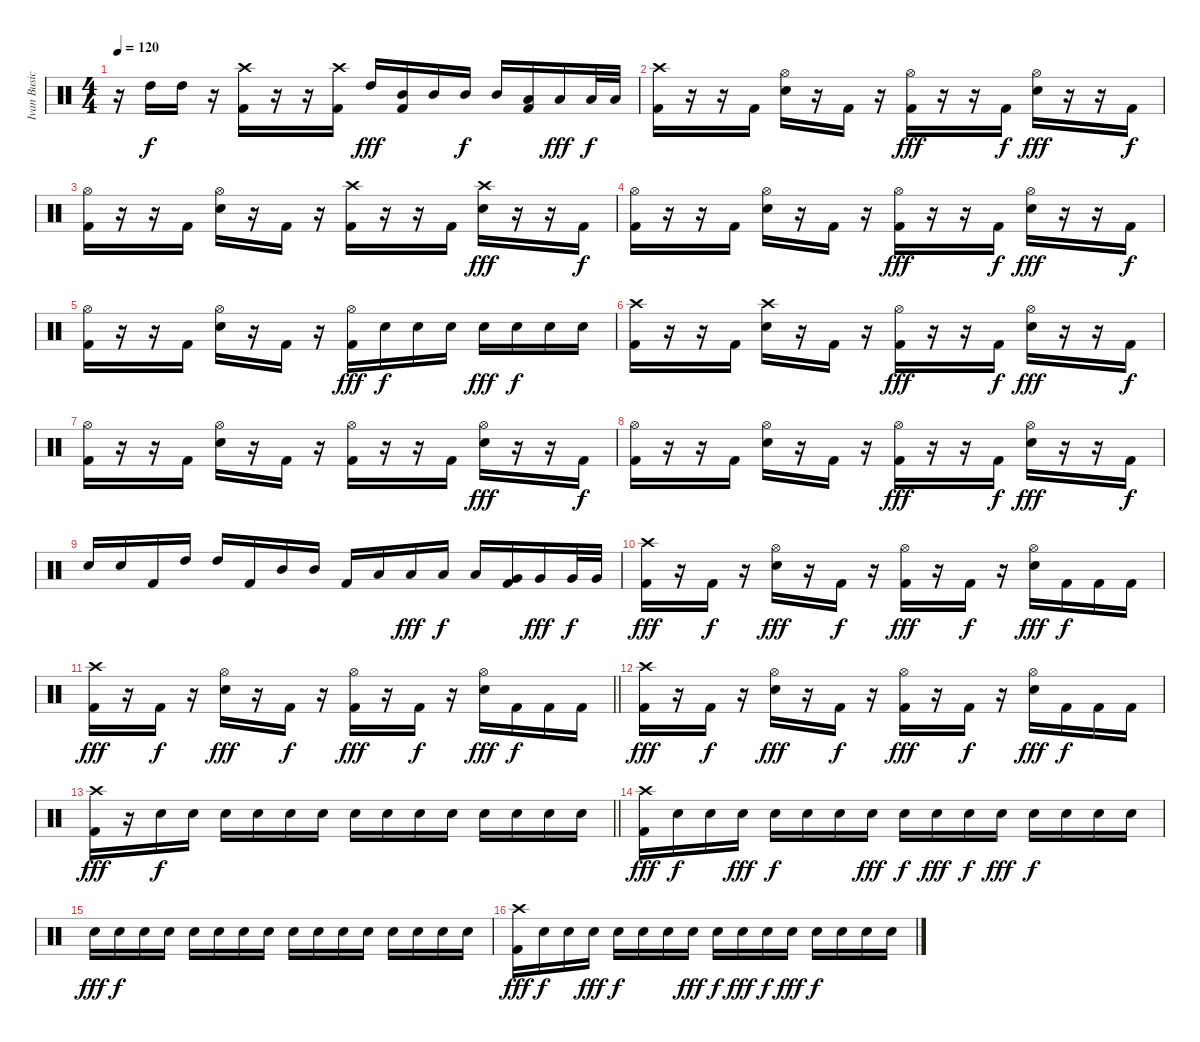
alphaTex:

\track ("Ivan Busic" "Ivan Busic") {instrument percussion}
\staff {score}
\articulation defaults
\ts (4 4)
\tempo 120
\clef neutral
\ks c
r.16{dy f} "High Tom (hit)".16 "High Tom (hit)".16 r.16 ("Crash high (hit)" "Kick (hit) 2").16 r.16 r.16 ("Crash high (hit)" "Kick (hit) 2").16 "High Tom (hit)".16{dy fff} ("Mid Tom (hit)" "Kick (hit) 2").16 "Mid Tom (hit)".16 "Mid Tom (hit)".16{dy f} "Mid Tom (hit)".16 ("Low Tom (hit)" "Kick (hit) 2").16 "Low Tom (hit)".16{dy fff} "Low Tom (hit)".32{dy f} "Low Tom (hit)".32 |
("Crash high (hit)" "Kick (hit) 2").16 r.16 r.16 "Kick (hit) 2".16 ("Hi-Hat (open)" "Electric Snare (hit)").16 r.16 "Kick (hit) 2".16 r.16 ("Hi-Hat (open)" "Kick (hit) 2").16{dy fff} r.16 r.16 "Kick (hit) 2".16{dy f} ("Hi-Hat (open)" "Electric Snare (hit)").16{dy fff} r.16 r.16 "Kick (hit) 2".16{dy f} |
("Hi-Hat (open)" "Kick (hit) 2").16 r.16 r.16 "Kick (hit) 2".16 ("Hi-Hat (open)" "Electric Snare (hit)").16 r.16 "Kick (hit) 2".16 r.16 ("Crash high (hit)" "Kick (hit) 2").16 r.16 r.16 "Kick (hit) 2".16 ("Crash high (hit)" "Electric Snare (hit)").16{dy fff} r.16 r.16 "Kick (hit) 2".16{dy f} |
("Hi-Hat (open)" "Kick (hit) 2").16 r.16 r.16 "Kick (hit) 2".16 ("Hi-Hat (open)" "Electric Snare (hit)").16 r.16 "Kick (hit) 2".16 r.16 ("Hi-Hat (open)" "Kick (hit) 2").16{dy fff} r.16 r.16 "Kick (hit) 2".16{dy f} ("Hi-Hat (open)" "Electric Snare (hit)").16{dy fff} r.16 r.16 "Kick (hit) 2".16{dy f} |
("Hi-Hat (open)" "Kick (hit) 2").16 r.16 r.16 "Kick (hit) 2".16 ("Hi-Hat (open)" "Electric Snare (hit)").16 r.16 "Kick (hit) 2".16 r.16 ("Hi-Hat (open)" "Kick (hit) 2").16{dy fff} "Electric Snare (hit)".16{dy f} "Electric Snare (hit)".16 "Electric Snare (hit)".16 "Electric Snare (hit)".16{dy fff} "Electric Snare (hit)".16{dy f} "Electric Snare (hit)".16 "Electric Snare (hit)".16 |
("Crash high (hit)" "Kick (hit) 2").16 r.16 r.16 "Kick (hit) 2".16 ("Crash high (hit)" "Electric Snare (hit)").16 r.16 "Kick (hit) 2".16 r.16 ("Hi-Hat (open)" "Kick (hit) 2").16{dy fff} r.16 r.16 "Kick (hit) 2".16{dy f} ("Hi-Hat (open)" "Electric Snare (hit)").16{dy fff} r.16 r.16 "Kick (hit) 2".16{dy f} |
("Hi-Hat (open)" "Kick (hit) 2").16 r.16 r.16 "Kick (hit) 2".16 ("Hi-Hat (open)" "Electric Snare (hit)").16 r.16 "Kick (hit) 2".16 r.16 ("Hi-Hat (open)" "Kick (hit) 2").16 r.16 r.16 "Kick (hit) 2".16 ("Hi-Hat (open)" "Electric Snare (hit)").16{dy fff} r.16 r.16 "Kick (hit) 2".16{dy f} |
("Hi-Hat (open)" "Kick (hit) 2").16 r.16 r.16 "Kick (hit) 2".16 ("Hi-Hat (open)" "Electric Snare (hit)").16 r.16 "Kick (hit) 2".16 r.16 ("Hi-Hat (open)" "Kick (hit) 2").16{dy fff} r.16 r.16 "Kick (hit) 2".16{dy f} ("Hi-Hat (open)" "Electric Snare (hit)").16{dy fff} r.16 r.16 "Kick (hit) 2".16{dy f} |
"Electric Snare (hit)".16 "Electric Snare (hit)".16 "Kick (hit) 2".16 "High Tom (hit)".16 "High Tom (hit)".16 "Kick (hit) 2".16 "Mid Tom (hit)".16 "Mid Tom (hit)".16 "Kick (hit) 2".16 "Low Tom (hit)".16 "Low Tom (hit)".16{dy fff} "Low Tom (hit)".16{dy f} "Low Tom (hit)".16 ("Very Low Tom (hit)" "Kick (hit) 2").16 "Very Low Tom (hit)".16{dy fff} "Very Low Tom (hit)".32{dy f} "Very Low Tom (hit)".32 |
("Crash high (hit)" "Kick (hit) 2").16{dy fff} r.16 "Kick (hit) 2".16{dy f} r.16 ("Hi-Hat (open)" "Electric Snare (hit)").16{dy fff} r.16 "Kick (hit) 2".16{dy f} r.16 ("Hi-Hat (open)" "Kick (hit) 2").16{dy fff} r.16 "Kick (hit) 2".16{dy f} r.16 ("Hi-Hat (open)" "Electric Snare (hit)").16{dy fff} "Kick (hit) 2".16{dy f} "Kick (hit) 2".16 "Kick (hit) 2".16 |
\barLineRight lightlight
("Crash high (hit)" "Kick (hit) 2").16{dy fff} r.16 "Kick (hit) 2".16{dy f} r.16 ("Hi-Hat (open)" "Electric Snare (hit)").16{dy fff} r.16 "Kick (hit) 2".16{dy f} r.16 ("Hi-Hat (open)" "Kick (hit) 2").16{dy fff} r.16 "Kick (hit) 2".16{dy f} r.16 ("Hi-Hat (open)" "Electric Snare (hit)").16{dy fff} "Kick (hit) 2".16{dy f} "Kick (hit) 2".16 "Kick (hit) 2".16 |
("Crash high (hit)" "Kick (hit) 2").16{dy fff} r.16 "Kick (hit) 2".16{dy f} r.16 ("Hi-Hat (open)" "Electric Snare (hit)").16{dy fff} r.16 "Kick (hit) 2".16{dy f} r.16 ("Hi-Hat (open)" "Kick (hit) 2").16{dy fff} r.16 "Kick (hit) 2".16{dy f} r.16 ("Hi-Hat (open)" "Electric Snare (hit)").16{dy fff} "Kick (hit) 2".16{dy f} "Kick (hit) 2".16 "Kick (hit) 2".16 |
\barLineRight lightlight
("Crash high (hit)" "Kick (hit) 2").16{dy fff} r.16 "Electric Snare (hit)".16{dy f} "Electric Snare (hit)".16 "Electric Snare (hit)".16 "Electric Snare (hit)".16 "Electric Snare (hit)".16 "Electric Snare (hit)".16 "Electric Snare (hit)".16 "Electric Snare (hit)".16 "Electric Snare (hit)".16 "Electric Snare (hit)".16 "Electric Snare (hit)".16 "Electric Snare (hit)".16 "Electric Snare (hit)".16 "Electric Snare (hit)".16 |
("Crash high (hit)" "Kick (hit) 2").16{dy fff} "Snare (hit)".16{dy f} "Snare (hit)".16 "Snare (hit)".16{dy fff} "Snare (hit)".16{dy f} "Snare (hit)".16 "Snare (hit)".16 "Snare (hit)".16{dy fff} "Snare (hit)".16{dy f} "Snare (hit)".16{dy fff} "Snare (hit)".16{dy f} "Snare (hit)".16{dy fff} "Snare (hit)".16{dy f} "Snare (hit)".16 "Snare (hit)".16 "Snare (hit)".16 |
"Snare (hit)".16{dy fff} "Snare (hit)".16{dy f} "Snare (hit)".16 "Snare (hit)".16 "Snare (hit)".16 "Snare (hit)".16 "Snare (hit)".16 "Snare (hit)".16 "Snare (hit)".16 "Electric Snare (hit)".16 "Electric Snare (hit)".16 "Electric Snare (hit)".16 "Electric Snare (hit)".16 "Electric Snare (hit)".16 "Electric Snare (hit)".16 "Electric Snare (hit)".16 |
("Crash high (hit)" "Kick (hit) 2").16{dy fff} "Snare (hit)".16{dy f} "Snare (hit)".16 "Snare (hit)".16{dy fff} "Snare (hit)".16{dy f} "Snare (hit)".16 "Snare (hit)".16 "Snare (hit)".16{dy fff} "Snare (hit)".16{dy f} "Snare (hit)".16{dy fff} "Snare (hit)".16{dy f} "Snare (hit)".16{dy fff} "Snare (hit)".16{dy f} "Snare (hit)".16 "Snare (hit)".16 "Snare (hit)".16
